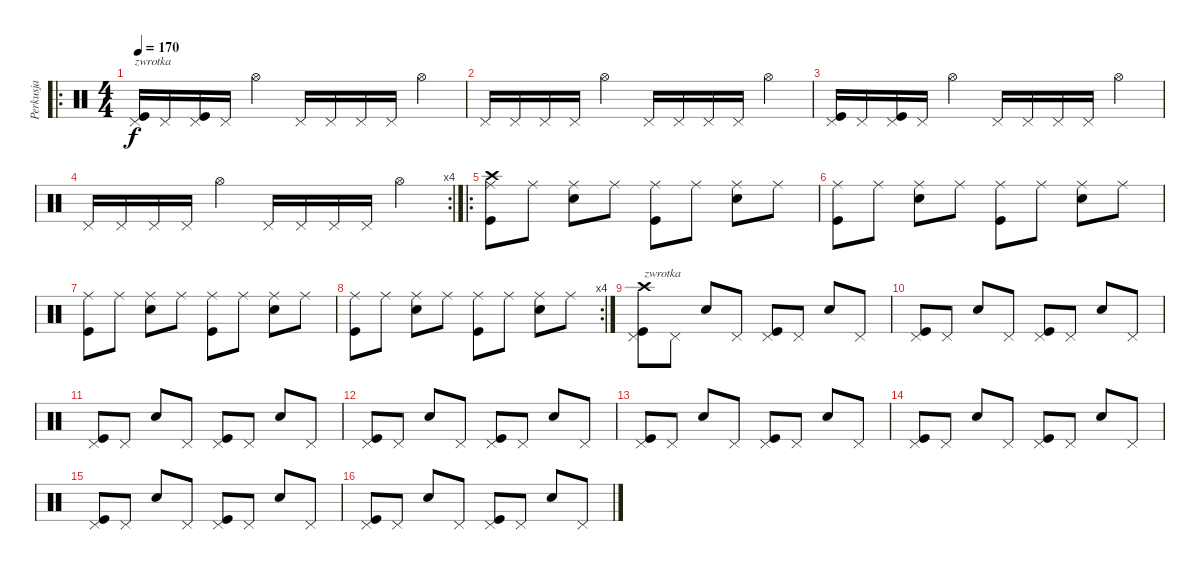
\track ("Perkusja" "Perkusja") {instrument percussion}
\staff {score}
\articulation defaults
\ro
\ts (4 4)
\tempo 170
\clef neutral
\ks c
("Pedal Hi-Hat (hit)" "Kick (hit)").16{txt "zwrotka" dy f} "Pedal Hi-Hat (hit)".16 ("Pedal Hi-Hat (hit)" "Kick (hit)").16 "Pedal Hi-Hat (hit)".16 "Hi-Hat (open)".4 "Pedal Hi-Hat (hit)".16 "Pedal Hi-Hat (hit)".16 "Pedal Hi-Hat (hit)".16 "Pedal Hi-Hat (hit)".16 "Hi-Hat (open)".4 |
"Pedal Hi-Hat (hit)".16 "Pedal Hi-Hat (hit)".16 "Pedal Hi-Hat (hit)".16 "Pedal Hi-Hat (hit)".16 "Hi-Hat (open)".4 "Pedal Hi-Hat (hit)".16 "Pedal Hi-Hat (hit)".16 "Pedal Hi-Hat (hit)".16 "Pedal Hi-Hat (hit)".16 "Hi-Hat (open)".4 |
("Pedal Hi-Hat (hit)" "Kick (hit)").16 "Pedal Hi-Hat (hit)".16 ("Pedal Hi-Hat (hit)" "Kick (hit)").16 "Pedal Hi-Hat (hit)".16 "Hi-Hat (open)".4 "Pedal Hi-Hat (hit)".16 "Pedal Hi-Hat (hit)".16 "Pedal Hi-Hat (hit)".16 "Pedal Hi-Hat (hit)".16 "Hi-Hat (open)".4 |
\rc 4 "Pedal Hi-Hat (hit)".16 "Pedal Hi-Hat (hit)".16 "Pedal Hi-Hat (hit)".16 "Pedal Hi-Hat (hit)".16 "Hi-Hat (open)".4 "Pedal Hi-Hat (hit)".16 "Pedal Hi-Hat (hit)".16 "Pedal Hi-Hat (hit)".16 "Pedal Hi-Hat (hit)".16 "Hi-Hat (open)".4
|
\ro
("Ride (middle)" "Crash high (hit)" "Kick (hit)").8 "Ride (middle)".8 ("Ride (middle)" "Electric Snare (hit)").8 "Ride (middle)".8 ("Ride (middle)" "Kick (hit)").8 "Ride (middle)".8 ("Ride (middle)" "Electric Snare (hit)").8 "Ride (middle)".8 |
("Ride (middle)" "Kick (hit)").8 "Ride (middle)".8 ("Ride (middle)" "Electric Snare (hit)").8 "Ride (middle)".8 ("Ride (middle)" "Kick (hit)").8 "Ride (middle)".8 ("Ride (middle)" "Electric Snare (hit)").8 "Ride (middle)".8 |
("Ride (middle)" "Kick (hit)").8 "Ride (middle)".8 ("Ride (middle)" "Electric Snare (hit)").8 "Ride (middle)".8 ("Ride (middle)" "Kick (hit)").8 "Ride (middle)".8 ("Ride (middle)" "Electric Snare (hit)").8 "Ride (middle)".8 |
\rc 4
("Ride (middle)" "Kick (hit)").8 "Ride (middle)".8 ("Ride (middle)" "Electric Snare (hit)").8 "Ride (middle)".8 ("Ride (middle)" "Kick (hit)").8 "Ride (middle)".8 ("Ride (middle)" "Electric Snare (hit)").8 "Ride (middle)".8 |
("Pedal Hi-Hat (hit)" "Crash high (hit)" "Kick (hit)").8{txt "zwrotka"} "Pedal Hi-Hat (hit)".8 "Electric Snare (hit)".8 "Pedal Hi-Hat (hit)".8 ("Pedal Hi-Hat (hit)" "Kick (hit)").8 "Pedal Hi-Hat (hit)".8 "Electric Snare (hit)".8 "Pedal Hi-Hat (hit)".8 |
("Pedal Hi-Hat (hit)" "Kick (hit)").8 "Pedal Hi-Hat (hit)".8 "Electric Snare (hit)".8 "Pedal Hi-Hat (hit)".8 ("Pedal Hi-Hat (hit)" "Kick (hit)").8 "Pedal Hi-Hat (hit)".8 "Electric Snare (hit)".8 "Pedal Hi-Hat (hit)".8 |
("Pedal Hi-Hat (hit)" "Kick (hit)").8 "Pedal Hi-Hat (hit)".8 "Electric Snare (hit)".8 "Pedal Hi-Hat (hit)".8 ("Pedal Hi-Hat (hit)" "Kick (hit)").8 "Pedal Hi-Hat (hit)".8 "Electric Snare (hit)".8 "Pedal Hi-Hat (hit)".8 |
("Pedal Hi-Hat (hit)" "Kick (hit)").8 "Pedal Hi-Hat (hit)".8 "Electric Snare (hit)".8 "Pedal Hi-Hat (hit)".8 ("Pedal Hi-Hat (hit)" "Kick (hit)").8 "Pedal Hi-Hat (hit)".8 "Electric Snare (hit)".8 "Pedal Hi-Hat (hit)".8 |
("Pedal Hi-Hat (hit)" "Kick (hit)").8 "Pedal Hi-Hat (hit)".8 "Electric Snare (hit)".8 "Pedal Hi-Hat (hit)".8 ("Pedal Hi-Hat (hit)" "Kick (hit)").8 "Pedal Hi-Hat (hit)".8 "Electric Snare (hit)".8 "Pedal Hi-Hat (hit)".8 |
("Pedal Hi-Hat (hit)" "Kick (hit)").8 "Pedal Hi-Hat (hit)".8 "Electric Snare (hit)".8 "Pedal Hi-Hat (hit)".8 ("Pedal Hi-Hat (hit)" "Kick (hit)").8 "Pedal Hi-Hat (hit)".8 "Electric Snare (hit)".8 "Pedal Hi-Hat (hit)".8 |
("Pedal Hi-Hat (hit)" "Kick (hit)").8 "Pedal Hi-Hat (hit)".8 "Electric Snare (hit)".8 "Pedal Hi-Hat (hit)".8 ("Pedal Hi-Hat (hit)" "Kick (hit)").8 "Pedal Hi-Hat (hit)".8 "Electric Snare (hit)".8 "Pedal Hi-Hat (hit)".8 |
("Pedal Hi-Hat (hit)" "Kick (hit)").8 "Pedal Hi-Hat (hit)".8 "Electric Snare (hit)".8 "Pedal Hi-Hat (hit)".8 ("Pedal Hi-Hat (hit)" "Kick (hit)").8 "Pedal Hi-Hat (hit)".8 "Electric Snare (hit)".8 "Pedal Hi-Hat (hit)".8
